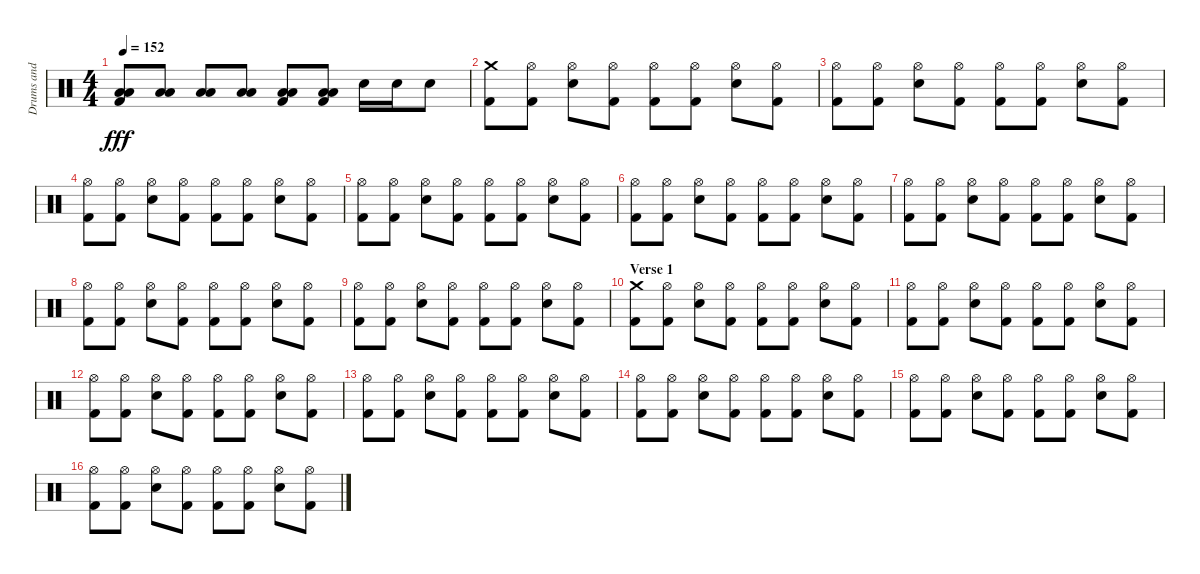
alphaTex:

\track ("Drums and Percussion" "Drums and ") {instrument percussion}
\staff {score}
\articulation defaults
\ts (4 4)
\tempo 152
\clef neutral
\ks c
("Low Tom (hit)" "Low Floor Tom (hit)" "Kick (hit) 2").8{dy fff} ("Low Tom (hit)" "Low Floor Tom (hit)").8 ("Low Tom (hit)" "Low Floor Tom (hit)").8 ("Low Tom (hit)" "Low Floor Tom (hit)").8 ("Low Tom (hit)" "Low Floor Tom (hit)" "Kick (hit) 2").8 ("Low Tom (hit)" "Low Floor Tom (hit)" "Kick (hit) 2").8 "Snare (hit) 2".16 "Snare (hit) 2".16 "Snare (hit) 2".8 |
("Crash medium (hit)" "Kick (hit) 2").8 ("Hi-Hat (open)" "Kick (hit) 2").8 ("Hi-Hat (open)" "Snare (hit) 2").8 ("Hi-Hat (open)" "Kick (hit) 2").8 ("Hi-Hat (open)" "Kick (hit) 2").8 ("Hi-Hat (open)" "Kick (hit) 2").8 ("Hi-Hat (open)" "Snare (hit) 2").8 ("Hi-Hat (open)" "Kick (hit) 2").8 |
("Hi-Hat (open)" "Kick (hit) 2").8 ("Hi-Hat (open)" "Kick (hit) 2").8 ("Hi-Hat (open)" "Snare (hit) 2").8 ("Hi-Hat (open)" "Kick (hit) 2").8 ("Hi-Hat (open)" "Kick (hit) 2").8 ("Hi-Hat (open)" "Kick (hit) 2").8 ("Hi-Hat (open)" "Snare (hit) 2").8 ("Hi-Hat (open)" "Kick (hit) 2").8 |
("Hi-Hat (open)" "Kick (hit) 2").8 ("Hi-Hat (open)" "Kick (hit) 2").8 ("Hi-Hat (open)" "Snare (hit) 2").8 ("Hi-Hat (open)" "Kick (hit) 2").8 ("Hi-Hat (open)" "Kick (hit) 2").8 ("Hi-Hat (open)" "Kick (hit) 2").8 ("Hi-Hat (open)" "Snare (hit) 2").8 ("Hi-Hat (open)" "Kick (hit) 2").8 |
("Hi-Hat (open)" "Kick (hit) 2").8 ("Hi-Hat (open)" "Kick (hit) 2").8 ("Hi-Hat (open)" "Snare (hit) 2").8 ("Hi-Hat (open)" "Kick (hit) 2").8 ("Hi-Hat (open)" "Kick (hit) 2").8 ("Hi-Hat (open)" "Kick (hit) 2").8 ("Hi-Hat (open)" "Snare (hit) 2").8 ("Hi-Hat (open)" "Kick (hit) 2").8 |
("Hi-Hat (open)" "Kick (hit) 2").8 ("Hi-Hat (open)" "Kick (hit) 2").8 ("Hi-Hat (open)" "Snare (hit) 2").8 ("Hi-Hat (open)" "Kick (hit) 2").8 ("Hi-Hat (open)" "Kick (hit) 2").8 ("Hi-Hat (open)" "Kick (hit) 2").8 ("Hi-Hat (open)" "Snare (hit) 2").8 ("Hi-Hat (open)" "Kick (hit) 2").8 |
("Hi-Hat (open)" "Kick (hit) 2").8 ("Hi-Hat (open)" "Kick (hit) 2").8 ("Hi-Hat (open)" "Snare (hit) 2").8 ("Hi-Hat (open)" "Kick (hit) 2").8 ("Hi-Hat (open)" "Kick (hit) 2").8 ("Hi-Hat (open)" "Kick (hit) 2").8 ("Hi-Hat (open)" "Snare (hit) 2").8 ("Hi-Hat (open)" "Kick (hit) 2").8 |
("Hi-Hat (open)" "Kick (hit) 2").8 ("Hi-Hat (open)" "Kick (hit) 2").8 ("Hi-Hat (open)" "Snare (hit) 2").8 ("Hi-Hat (open)" "Kick (hit) 2").8 ("Hi-Hat (open)" "Kick (hit) 2").8 ("Hi-Hat (open)" "Kick (hit) 2").8 ("Hi-Hat (open)" "Snare (hit) 2").8 ("Hi-Hat (open)" "Kick (hit) 2").8 |
("Hi-Hat (open)" "Kick (hit) 2").8 ("Hi-Hat (open)" "Kick (hit) 2").8 ("Hi-Hat (open)" "Snare (hit) 2").8 ("Hi-Hat (open)" "Kick (hit) 2").8 ("Hi-Hat (open)" "Kick (hit) 2").8 ("Hi-Hat (open)" "Kick (hit) 2").8 ("Hi-Hat (open)" "Snare (hit) 2").8 ("Hi-Hat (open)" "Kick (hit) 2").8 |
\section ("" "Verse 1")
("Crash medium (hit)" "Kick (hit) 2").8 ("Hi-Hat (open)" "Kick (hit) 2").8 ("Hi-Hat (open)" "Snare (hit) 2").8 ("Hi-Hat (open)" "Kick (hit) 2").8 ("Hi-Hat (open)" "Kick (hit) 2").8 ("Hi-Hat (open)" "Kick (hit) 2").8 ("Hi-Hat (open)" "Snare (hit) 2").8 ("Hi-Hat (open)" "Kick (hit) 2").8 |
("Hi-Hat (open)" "Kick (hit) 2").8 ("Hi-Hat (open)" "Kick (hit) 2").8 ("Hi-Hat (open)" "Snare (hit) 2").8 ("Hi-Hat (open)" "Kick (hit) 2").8 ("Hi-Hat (open)" "Kick (hit) 2").8 ("Hi-Hat (open)" "Kick (hit) 2").8 ("Hi-Hat (open)" "Snare (hit) 2").8 ("Hi-Hat (open)" "Kick (hit) 2").8 |
("Hi-Hat (open)" "Kick (hit) 2").8 ("Hi-Hat (open)" "Kick (hit) 2").8 ("Hi-Hat (open)" "Snare (hit) 2").8 ("Hi-Hat (open)" "Kick (hit) 2").8 ("Hi-Hat (open)" "Kick (hit) 2").8 ("Hi-Hat (open)" "Kick (hit) 2").8 ("Hi-Hat (open)" "Snare (hit) 2").8 ("Hi-Hat (open)" "Kick (hit) 2").8 |
("Hi-Hat (open)" "Kick (hit) 2").8 ("Hi-Hat (open)" "Kick (hit) 2").8 ("Hi-Hat (open)" "Snare (hit) 2").8 ("Hi-Hat (open)" "Kick (hit) 2").8 ("Hi-Hat (open)" "Kick (hit) 2").8 ("Hi-Hat (open)" "Kick (hit) 2").8 ("Hi-Hat (open)" "Snare (hit) 2").8 ("Hi-Hat (open)" "Kick (hit) 2").8 |
("Hi-Hat (open)" "Kick (hit) 2").8 ("Hi-Hat (open)" "Kick (hit) 2").8 ("Hi-Hat (open)" "Snare (hit) 2").8 ("Hi-Hat (open)" "Kick (hit) 2").8 ("Hi-Hat (open)" "Kick (hit) 2").8 ("Hi-Hat (open)" "Kick (hit) 2").8 ("Hi-Hat (open)" "Snare (hit) 2").8 ("Hi-Hat (open)" "Kick (hit) 2").8 |
("Hi-Hat (open)" "Kick (hit) 2").8 ("Hi-Hat (open)" "Kick (hit) 2").8 ("Hi-Hat (open)" "Snare (hit) 2").8 ("Hi-Hat (open)" "Kick (hit) 2").8 ("Hi-Hat (open)" "Kick (hit) 2").8 ("Hi-Hat (open)" "Kick (hit) 2").8 ("Hi-Hat (open)" "Snare (hit) 2").8 ("Hi-Hat (open)" "Kick (hit) 2").8 |
("Hi-Hat (open)" "Kick (hit) 2").8 ("Hi-Hat (open)" "Kick (hit) 2").8 ("Hi-Hat (open)" "Snare (hit) 2").8 ("Hi-Hat (open)" "Kick (hit) 2").8 ("Hi-Hat (open)" "Kick (hit) 2").8 ("Hi-Hat (open)" "Kick (hit) 2").8 ("Hi-Hat (open)" "Snare (hit) 2").8 ("Hi-Hat (open)" "Kick (hit) 2").8
